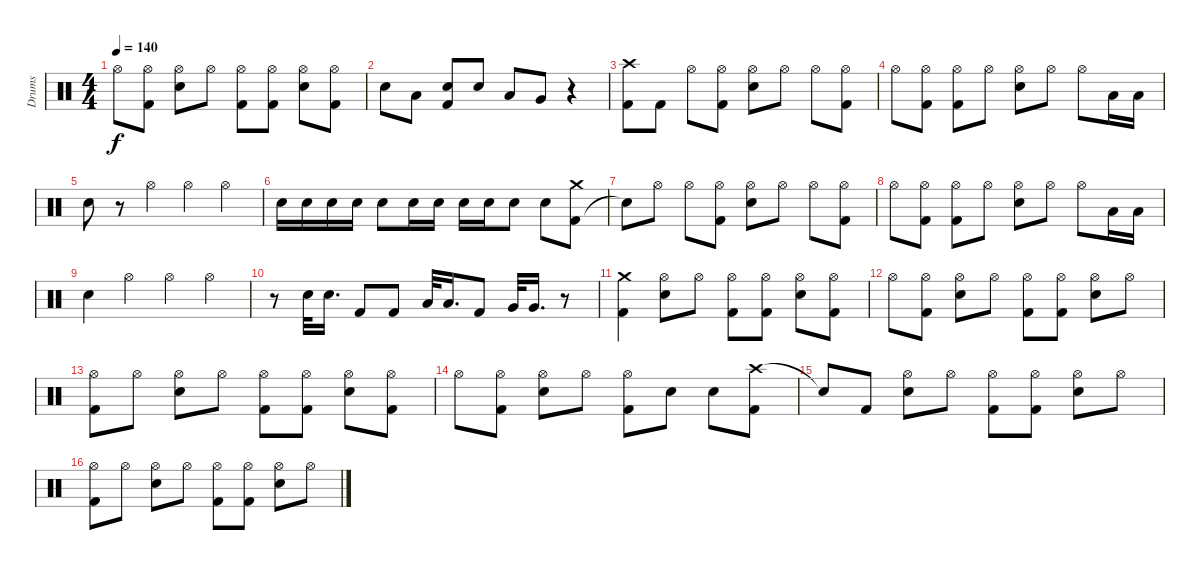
\track ("Drums" "Drums") {instrument percussion}
\staff {score}
\articulation defaults
\ts (4 4)
\tempo 140
\clef neutral
\ks c "Hi-Hat (open)".8{dy f}
("Hi-Hat (open)" "Kick (hit) 2").8 ("Hi-Hat (open)" "Snare (hit) 2").8 "Hi-Hat (open)".8 ("Hi-Hat (open)" "Kick (hit) 2").8 ("Kick (hit) 2" "Hi-Hat (open)").8 ("Snare (hit) 2" "Hi-Hat (open)").8 ("Kick (hit) 2" "Hi-Hat (open)").8 |
"Snare (hit) 2".8 "Low Tom (hit)".8 ("Kick (hit) 2" "Snare (hit) 2").8 "Snare (hit) 2".8 "Low Tom (hit)".8 "Very Low Tom (hit)".8 r.4 |
("Crash high (hit)" "Kick (hit) 2").8 "Kick (hit) 2".8 "Hi-Hat (open)".8 ("Hi-Hat (open)" "Kick (hit) 2").8 ("Snare (hit) 2" "Hi-Hat (open)").8 "Hi-Hat (open)".8 "Hi-Hat (open)".8 ("Hi-Hat (open)" "Kick (hit) 2").8 |
"Hi-Hat (open)".8 ("Kick (hit) 2" "Hi-Hat (open)").8 ("Hi-Hat (open)" "Kick (hit) 2").8 "Hi-Hat (open)".8 ("Snare (hit) 2" "Hi-Hat (open)").8 "Hi-Hat (open)".8 "Hi-Hat (open)".8 "Low Tom (hit)".16 "Low Tom (hit)".16 |
"Snare (hit) 2".8 r.8 "Hi-Hat (open)".4 "Hi-Hat (open)".4 "Hi-Hat (open)".4 |
"Snare (hit) 2".16 "Snare (hit) 2".16 "Snare (hit) 2".16 "Snare (hit) 2".16 "Snare (hit) 2".8 "Snare (hit) 2".16 "Snare (hit) 2".16 "Snare (hit) 2".16 "Snare (hit) 2".16 "Snare (hit) 2".8 "Snare (hit) 2".8 ("Kick (hit) 2" "Crash medium (hit)").8 |
"Snare (hit)"{t}.8 "Hi-Hat (open)".8 "Hi-Hat (open)".8 ("Hi-Hat (open)" "Kick (hit) 2").8 ("Hi-Hat (open)" "Snare (hit) 2").8 "Hi-Hat (open)".8 "Hi-Hat (open)".8 ("Hi-Hat (open)" "Kick (hit) 2").8 |
"Hi-Hat (open)".8 ("Kick (hit) 2" "Hi-Hat (open)").8 ("Kick (hit) 2" "Hi-Hat (open)").8 "Hi-Hat (open)".8 ("Snare (hit) 2" "Hi-Hat (open)").8 "Hi-Hat (open)".8 "Hi-Hat (open)".8 "Low Tom (hit)".16 "Low Tom (hit)".16 |
"Snare (hit) 2".4 "Hi-Hat (open)".4 "Hi-Hat (open)".4 "Hi-Hat (open)".4 |
r.8 "Snare (hit) 2".32 "Snare (hit) 2".16{d} "Kick (hit) 2".8 "Kick (hit) 2".8 "Low Tom (hit)".32 "Low Tom (hit)".16{d} "Kick (hit) 2".8 "Very Low Tom (hit)".32 "Very Low Tom (hit)".16{d} r.8 |
("Crash medium (hit)" "Kick (hit) 2").4 ("Hi-Hat (open)" "Snare (hit) 2").8 "Hi-Hat (open)".8 ("Hi-Hat (open)" "Kick (hit) 2").8 ("Hi-Hat (open)" "Kick (hit) 2").8 ("Hi-Hat (open)" "Snare (hit) 2").8 ("Hi-Hat (open)" "Kick (hit) 2").8 |
"Hi-Hat (open)".8 ("Kick (hit) 2" "Hi-Hat (open)").8 ("Snare (hit) 2" "Hi-Hat (open)").8 "Hi-Hat (open)".8 ("Hi-Hat (open)" "Kick (hit) 2").8 ("Hi-Hat (open)" "Kick (hit) 2").8 ("Snare (hit) 2" "Hi-Hat (open)").8 "Hi-Hat (open)".8 |
("Kick (hit) 2" "Hi-Hat (open)").8 "Hi-Hat (open)".8 ("Snare (hit) 2" "Hi-Hat (open)").8 "Hi-Hat (open)".8 ("Kick (hit) 2" "Hi-Hat (open)").8 ("Hi-Hat (open)" "Kick (hit) 2").8 ("Hi-Hat (open)" "Snare (hit) 2").8 ("Hi-Hat (open)" "Kick (hit) 2").8 |
"Hi-Hat (open)".8 ("Hi-Hat (open)" "Kick (hit) 2").8 ("Hi-Hat (open)" "Snare (hit) 2").8 "Hi-Hat (open)".8 ("Hi-Hat (open)" "Kick (hit) 2").8 "Snare (hit) 2".8 "Snare (hit) 2".8 ("Crash high (hit)" "Kick (hit) 2").8 |
"Snare (hit)"{t}.8 "Kick (hit) 2".8 ("Hi-Hat (open)" "Snare (hit) 2").8 "Hi-Hat (open)".8 ("Hi-Hat (open)" "Kick (hit) 2").8 ("Hi-Hat (open)" "Kick (hit) 2").8 ("Hi-Hat (open)" "Snare (hit) 2").8 "Hi-Hat (open)".8 |
("Kick (hit) 2" "Hi-Hat (open)").8 "Hi-Hat (open)".8 ("Hi-Hat (open)" "Snare (hit) 2").8 "Hi-Hat (open)".8 ("Hi-Hat (open)" "Kick (hit) 2").8 ("Kick (hit) 2" "Hi-Hat (open)").8 ("Snare (hit) 2" "Hi-Hat (open)").8 "Hi-Hat (open)".8
